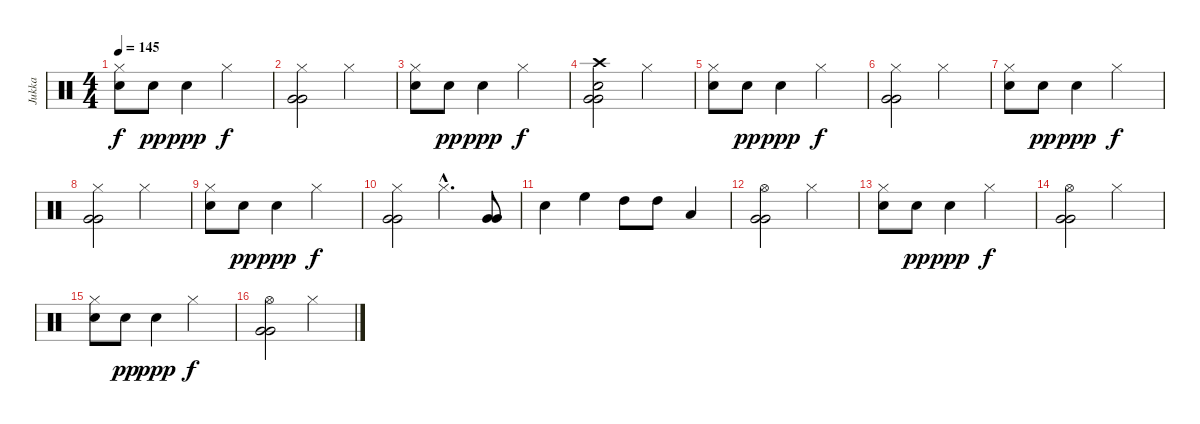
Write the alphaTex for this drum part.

\track ("Jukka" "Jukka") {instrument percussion}
\staff {score}
\articulation defaults
\ts (4 4)
\tempo 145
\clef neutral
\ks c
("Hi-Hat (closed)" "Electric Snare (hit)").8{dy f} "Electric Snare (hit)".8{dy pp} "Electric Snare (hit)".4{dy ppp} "Hi-Hat (closed)".2{dy f} |
("Hi-Hat (closed)" "Very Low Tom (hit)" "Very Low Tom (hit)").2 "Hi-Hat (closed)".2 |
("Hi-Hat (closed)" "Electric Snare (hit)").8 "Electric Snare (hit)".8{dy pp} "Electric Snare (hit)".4{dy ppp} "Hi-Hat (closed)".2{dy f} |
("Crash high (hit)" "Electric Snare (hit)" "Very Low Tom (hit)" "Very Low Tom (hit)").2 "Hi-Hat (closed)".2 |
("Hi-Hat (closed)" "Electric Snare (hit)").8 "Electric Snare (hit)".8{dy pp} "Electric Snare (hit)".4{dy ppp} "Hi-Hat (closed)".2{dy f} |
("Hi-Hat (closed)" "Very Low Tom (hit)" "Very Low Tom (hit)").2 "Hi-Hat (closed)".2 |
("Hi-Hat (closed)" "Electric Snare (hit)").8 "Electric Snare (hit)".8{dy pp} "Electric Snare (hit)".4{dy ppp} "Hi-Hat (closed)".2{dy f} |
("Hi-Hat (closed)" "Very Low Tom (hit)" "Very Low Tom (hit)").2 "Hi-Hat (closed)".2 |
("Hi-Hat (closed)" "Electric Snare (hit)").8 "Electric Snare (hit)".8{dy pp} "Electric Snare (hit)".4{dy ppp} "Hi-Hat (closed)".2{dy f} |
("Hi-Hat (closed)" "Very Low Tom (hit)" "Very Low Tom (hit)").2 "Hi-Hat (closed)"{hac}.4{d} ("Very Low Tom (hit)" "Very Low Tom (hit)").8 |
"Electric Snare (hit)".4 "High Floor Tom (hit)".4 "High Tom (hit)".8 "High Tom (hit)".8 "Low Tom (hit)".4 |
("Hi-Hat (open)" "Very Low Tom (hit)" "Very Low Tom (hit)").2 "Hi-Hat (closed)".2 |
("Hi-Hat (closed)" "Electric Snare (hit)").8 "Electric Snare (hit)".8{dy pp} "Electric Snare (hit)".4{dy ppp} "Hi-Hat (closed)".2{dy f} |
("Hi-Hat (open)" "Very Low Tom (hit)" "Very Low Tom (hit)").2 "Hi-Hat (closed)".2 |
("Hi-Hat (closed)" "Electric Snare (hit)").8 "Electric Snare (hit)".8{dy pp} "Electric Snare (hit)".4{dy ppp} "Hi-Hat (closed)".2{dy f} |
("Hi-Hat (open)" "Very Low Tom (hit)" "Very Low Tom (hit)").2 "Hi-Hat (closed)".2
